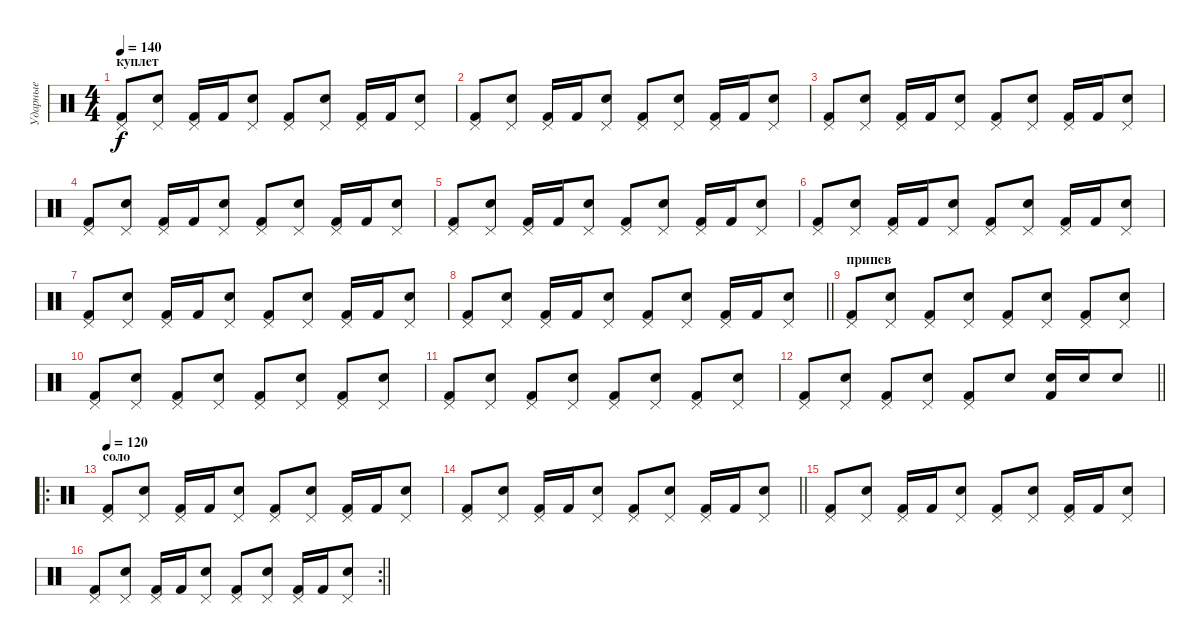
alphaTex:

\track ("Ударные" "Ударные") {instrument percussion}
\staff {score}
\articulation defaults
\ts (4 4)
\section ("" "куплет")
\tempo 140
\clef neutral
\ks c
("Pedal Hi-Hat (hit)" "Kick (hit) 2").8{dy f} ("Pedal Hi-Hat (hit)" "Electric Snare (hit)").8 ("Pedal Hi-Hat (hit)" "Kick (hit) 2").16 "Kick (hit) 2".16 ("Pedal Hi-Hat (hit)" "Electric Snare (hit)").8 ("Pedal Hi-Hat (hit)" "Kick (hit) 2").8 ("Pedal Hi-Hat (hit)" "Electric Snare (hit)").8 ("Pedal Hi-Hat (hit)" "Kick (hit) 2").16 "Kick (hit) 2".16 ("Pedal Hi-Hat (hit)" "Electric Snare (hit)").8 |
("Pedal Hi-Hat (hit)" "Kick (hit) 2").8 ("Pedal Hi-Hat (hit)" "Electric Snare (hit)").8 ("Pedal Hi-Hat (hit)" "Kick (hit) 2").16 "Kick (hit) 2".16 ("Pedal Hi-Hat (hit)" "Electric Snare (hit)").8 ("Pedal Hi-Hat (hit)" "Kick (hit) 2").8 ("Pedal Hi-Hat (hit)" "Electric Snare (hit)").8 ("Pedal Hi-Hat (hit)" "Kick (hit) 2").16 "Kick (hit) 2".16 ("Pedal Hi-Hat (hit)" "Electric Snare (hit)").8 |
("Pedal Hi-Hat (hit)" "Kick (hit) 2").8 ("Pedal Hi-Hat (hit)" "Electric Snare (hit)").8 ("Pedal Hi-Hat (hit)" "Kick (hit) 2").16 "Kick (hit) 2".16 ("Pedal Hi-Hat (hit)" "Electric Snare (hit)").8 ("Pedal Hi-Hat (hit)" "Kick (hit) 2").8 ("Pedal Hi-Hat (hit)" "Electric Snare (hit)").8 ("Pedal Hi-Hat (hit)" "Kick (hit) 2").16 "Kick (hit) 2".16 ("Pedal Hi-Hat (hit)" "Electric Snare (hit)").8 |
("Pedal Hi-Hat (hit)" "Kick (hit) 2").8 ("Pedal Hi-Hat (hit)" "Electric Snare (hit)").8 ("Pedal Hi-Hat (hit)" "Kick (hit) 2").16 "Kick (hit) 2".16 ("Pedal Hi-Hat (hit)" "Electric Snare (hit)").8 ("Pedal Hi-Hat (hit)" "Kick (hit) 2").8 ("Pedal Hi-Hat (hit)" "Electric Snare (hit)").8 ("Pedal Hi-Hat (hit)" "Kick (hit) 2").16 "Kick (hit) 2".16 ("Pedal Hi-Hat (hit)" "Electric Snare (hit)").8 |
("Pedal Hi-Hat (hit)" "Kick (hit) 2").8 ("Pedal Hi-Hat (hit)" "Electric Snare (hit)").8 ("Pedal Hi-Hat (hit)" "Kick (hit) 2").16 "Kick (hit) 2".16 ("Pedal Hi-Hat (hit)" "Electric Snare (hit)").8 ("Pedal Hi-Hat (hit)" "Kick (hit) 2").8 ("Pedal Hi-Hat (hit)" "Electric Snare (hit)").8 ("Pedal Hi-Hat (hit)" "Kick (hit) 2").16 "Kick (hit) 2".16 ("Pedal Hi-Hat (hit)" "Electric Snare (hit)").8 |
("Pedal Hi-Hat (hit)" "Kick (hit) 2").8 ("Pedal Hi-Hat (hit)" "Electric Snare (hit)").8 ("Pedal Hi-Hat (hit)" "Kick (hit) 2").16 "Kick (hit) 2".16 ("Pedal Hi-Hat (hit)" "Electric Snare (hit)").8 ("Pedal Hi-Hat (hit)" "Kick (hit) 2").8 ("Pedal Hi-Hat (hit)" "Electric Snare (hit)").8 ("Pedal Hi-Hat (hit)" "Kick (hit) 2").16 "Kick (hit) 2".16 ("Pedal Hi-Hat (hit)" "Electric Snare (hit)").8 |
("Pedal Hi-Hat (hit)" "Kick (hit) 2").8 ("Pedal Hi-Hat (hit)" "Electric Snare (hit)").8 ("Pedal Hi-Hat (hit)" "Kick (hit) 2").16 "Kick (hit) 2".16 ("Pedal Hi-Hat (hit)" "Electric Snare (hit)").8 ("Pedal Hi-Hat (hit)" "Kick (hit) 2").8 ("Pedal Hi-Hat (hit)" "Electric Snare (hit)").8 ("Pedal Hi-Hat (hit)" "Kick (hit) 2").16 "Kick (hit) 2".16 ("Pedal Hi-Hat (hit)" "Electric Snare (hit)").8 |
\barLineRight lightlight
("Pedal Hi-Hat (hit)" "Kick (hit) 2").8 ("Pedal Hi-Hat (hit)" "Electric Snare (hit)").8 ("Pedal Hi-Hat (hit)" "Kick (hit) 2").16 "Kick (hit) 2".16 ("Pedal Hi-Hat (hit)" "Electric Snare (hit)").8 ("Pedal Hi-Hat (hit)" "Kick (hit) 2").8 ("Pedal Hi-Hat (hit)" "Electric Snare (hit)").8 ("Pedal Hi-Hat (hit)" "Kick (hit) 2").16 "Kick (hit) 2".16 ("Pedal Hi-Hat (hit)" "Electric Snare (hit)").8 |
\section ("" "припев")
("Pedal Hi-Hat (hit)" "Kick (hit) 2").8 ("Pedal Hi-Hat (hit)" "Electric Snare (hit)").8 ("Pedal Hi-Hat (hit)" "Kick (hit) 2").8 ("Pedal Hi-Hat (hit)" "Electric Snare (hit)").8 ("Pedal Hi-Hat (hit)" "Kick (hit) 2").8 ("Pedal Hi-Hat (hit)" "Electric Snare (hit)").8 ("Pedal Hi-Hat (hit)" "Kick (hit) 2").8 ("Pedal Hi-Hat (hit)" "Electric Snare (hit)").8 |
("Pedal Hi-Hat (hit)" "Kick (hit) 2").8 ("Pedal Hi-Hat (hit)" "Electric Snare (hit)").8 ("Pedal Hi-Hat (hit)" "Kick (hit) 2").8 ("Pedal Hi-Hat (hit)" "Electric Snare (hit)").8 ("Pedal Hi-Hat (hit)" "Kick (hit) 2").8 ("Pedal Hi-Hat (hit)" "Electric Snare (hit)").8 ("Pedal Hi-Hat (hit)" "Kick (hit) 2").8 ("Pedal Hi-Hat (hit)" "Electric Snare (hit)").8 |
("Pedal Hi-Hat (hit)" "Kick (hit) 2").8 ("Pedal Hi-Hat (hit)" "Electric Snare (hit)").8 ("Pedal Hi-Hat (hit)" "Kick (hit) 2").8 ("Pedal Hi-Hat (hit)" "Electric Snare (hit)").8 ("Pedal Hi-Hat (hit)" "Kick (hit) 2").8 ("Pedal Hi-Hat (hit)" "Electric Snare (hit)").8 ("Pedal Hi-Hat (hit)" "Kick (hit) 2").8 ("Pedal Hi-Hat (hit)" "Electric Snare (hit)").8 |
\barLineRight lightlight
("Pedal Hi-Hat (hit)" "Kick (hit) 2").8 ("Pedal Hi-Hat (hit)" "Electric Snare (hit)").8 ("Pedal Hi-Hat (hit)" "Kick (hit) 2").8 ("Pedal Hi-Hat (hit)" "Electric Snare (hit)").8 ("Pedal Hi-Hat (hit)" "Kick (hit) 2").8 "Electric Snare (hit)".8 ("Electric Snare (hit)" "Kick (hit) 2").16 "Electric Snare (hit)".16 "Electric Snare (hit)".8 |
\ro
\section ("" "соло")
\tempo 120
("Pedal Hi-Hat (hit)" "Kick (hit) 2").8 ("Pedal Hi-Hat (hit)" "Electric Snare (hit)").8 ("Pedal Hi-Hat (hit)" "Kick (hit) 2").16 "Kick (hit) 2".16 ("Pedal Hi-Hat (hit)" "Electric Snare (hit)").8 ("Pedal Hi-Hat (hit)" "Kick (hit) 2").8 ("Pedal Hi-Hat (hit)" "Electric Snare (hit)").8 ("Pedal Hi-Hat (hit)" "Kick (hit) 2").16 "Kick (hit) 2".16 ("Pedal Hi-Hat (hit)" "Electric Snare (hit)").8 |
\barLineRight lightlight
("Pedal Hi-Hat (hit)" "Kick (hit) 2").8 ("Pedal Hi-Hat (hit)" "Electric Snare (hit)").8 ("Pedal Hi-Hat (hit)" "Kick (hit) 2").16 "Kick (hit) 2".16 ("Pedal Hi-Hat (hit)" "Electric Snare (hit)").8 ("Pedal Hi-Hat (hit)" "Kick (hit) 2").8 ("Pedal Hi-Hat (hit)" "Electric Snare (hit)").8 ("Pedal Hi-Hat (hit)" "Kick (hit) 2").16 "Kick (hit) 2".16 ("Pedal Hi-Hat (hit)" "Electric Snare (hit)").8 |
("Pedal Hi-Hat (hit)" "Kick (hit) 2").8 ("Pedal Hi-Hat (hit)" "Electric Snare (hit)").8 ("Pedal Hi-Hat (hit)" "Kick (hit) 2").16 "Kick (hit) 2".16 ("Pedal Hi-Hat (hit)" "Electric Snare (hit)").8 ("Pedal Hi-Hat (hit)" "Kick (hit) 2").8 ("Pedal Hi-Hat (hit)" "Electric Snare (hit)").8 ("Pedal Hi-Hat (hit)" "Kick (hit) 2").16 "Kick (hit) 2".16 ("Pedal Hi-Hat (hit)" "Electric Snare (hit)").8 |
\rc 2
\barLineRight lightlight
("Pedal Hi-Hat (hit)" "Kick (hit) 2").8 ("Pedal Hi-Hat (hit)" "Electric Snare (hit)").8 ("Pedal Hi-Hat (hit)" "Kick (hit) 2").16 "Kick (hit) 2".16 ("Pedal Hi-Hat (hit)" "Electric Snare (hit)").8 ("Pedal Hi-Hat (hit)" "Kick (hit) 2").8 ("Pedal Hi-Hat (hit)" "Electric Snare (hit)").8 ("Pedal Hi-Hat (hit)" "Kick (hit) 2").16 "Kick (hit) 2".16 ("Pedal Hi-Hat (hit)" "Electric Snare (hit)").8
